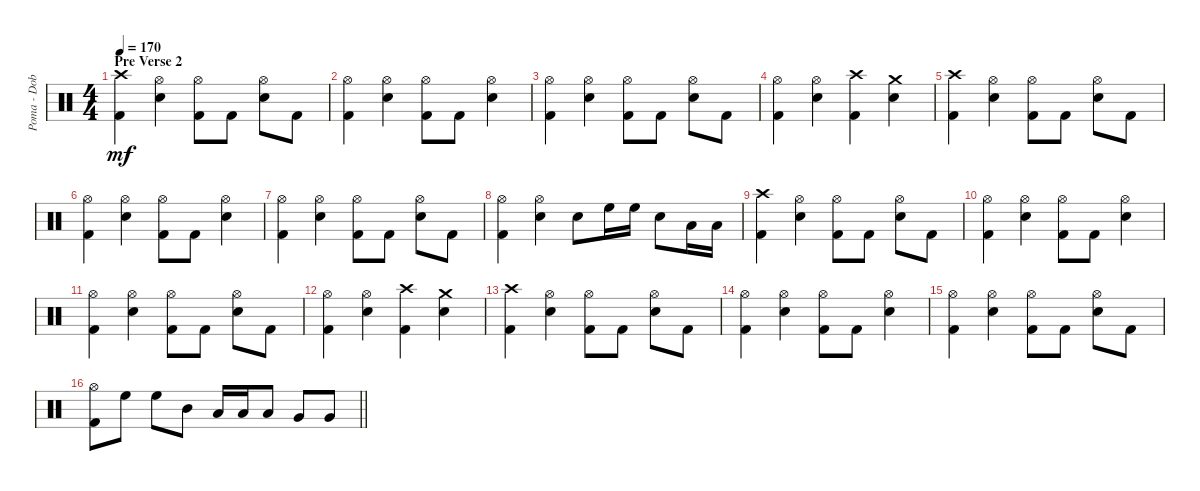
\track ("Poma - Dob" "Poma - Dob") {instrument percussion}
\staff {score}
\articulation defaults
\ts (4 4)
\section ("" "Pre Verse 2")
\tempo 170
\clef neutral
\ks c
("Crash high (hit)" "Kick (hit) 2").4{dy mf} ("Hi-Hat (open)" "Electric Snare (hit)").4 ("Hi-Hat (open)" "Kick (hit) 2").8 "Kick (hit) 2".8 ("Hi-Hat (open)" "Electric Snare (hit)").8 "Kick (hit) 2".8 |
("Hi-Hat (open)" "Kick (hit) 2").4 ("Hi-Hat (open)" "Electric Snare (hit)").4 ("Hi-Hat (open)" "Kick (hit) 2").8 "Kick (hit) 2".8 ("Hi-Hat (open)" "Electric Snare (hit)").4 |
("Hi-Hat (open)" "Kick (hit) 2").4 ("Hi-Hat (open)" "Electric Snare (hit)").4 ("Hi-Hat (open)" "Kick (hit) 2").8 "Kick (hit) 2".8 ("Hi-Hat (open)" "Electric Snare (hit)").8 "Kick (hit) 2".8 |
("Hi-Hat (open)" "Kick (hit) 2").4 ("Hi-Hat (open)" "Electric Snare (hit)").4 ("Crash high (hit)" "Kick (hit) 2").4 ("Crash medium (hit)" "Electric Snare (hit)").4 |
("Crash high (hit)" "Kick (hit) 2").4 ("Hi-Hat (open)" "Electric Snare (hit)").4 ("Hi-Hat (open)" "Kick (hit) 2").8 "Kick (hit) 2".8 ("Hi-Hat (open)" "Electric Snare (hit)").8 "Kick (hit) 2".8 |
("Hi-Hat (open)" "Kick (hit) 2").4 ("Hi-Hat (open)" "Electric Snare (hit)").4 ("Hi-Hat (open)" "Kick (hit) 2").8 "Kick (hit) 2".8 ("Hi-Hat (open)" "Electric Snare (hit)").4 |
("Hi-Hat (open)" "Kick (hit) 2").4 ("Hi-Hat (open)" "Electric Snare (hit)").4 ("Hi-Hat (open)" "Kick (hit) 2").8 "Kick (hit) 2".8 ("Hi-Hat (open)" "Electric Snare (hit)").8 "Kick (hit) 2".8 |
("Hi-Hat (open)" "Kick (hit) 2").4 ("Hi-Hat (open)" "Electric Snare (hit)").4 "Electric Snare (hit)".8 "High Floor Tom (hit)".16 "High Floor Tom (hit)".16 "Electric Snare (hit)".8 "Low Tom (hit)".16 "Low Tom (hit)".16 |
("Crash high (hit)" "Kick (hit) 2").4 ("Hi-Hat (open)" "Electric Snare (hit)").4 ("Hi-Hat (open)" "Kick (hit) 2").8 "Kick (hit) 2".8 ("Hi-Hat (open)" "Electric Snare (hit)").8 "Kick (hit) 2".8 |
("Hi-Hat (open)" "Kick (hit) 2").4 ("Hi-Hat (open)" "Electric Snare (hit)").4 ("Hi-Hat (open)" "Kick (hit) 2").8 "Kick (hit) 2".8 ("Hi-Hat (open)" "Electric Snare (hit)").4 |
("Hi-Hat (open)" "Kick (hit) 2").4 ("Hi-Hat (open)" "Electric Snare (hit)").4 ("Hi-Hat (open)" "Kick (hit) 2").8 "Kick (hit) 2".8 ("Hi-Hat (open)" "Electric Snare (hit)").8 "Kick (hit) 2".8 |
("Hi-Hat (open)" "Kick (hit) 2").4 ("Hi-Hat (open)" "Electric Snare (hit)").4 ("Crash high (hit)" "Kick (hit) 2").4 ("Crash medium (hit)" "Electric Snare (hit)").4 |
("Crash high (hit)" "Kick (hit) 2").4 ("Hi-Hat (open)" "Electric Snare (hit)").4 ("Hi-Hat (open)" "Kick (hit) 2").8 "Kick (hit) 2".8 ("Hi-Hat (open)" "Electric Snare (hit)").8 "Kick (hit) 2".8 |
("Hi-Hat (open)" "Kick (hit) 2").4 ("Hi-Hat (open)" "Electric Snare (hit)").4 ("Hi-Hat (open)" "Kick (hit) 2").8 "Kick (hit) 2".8 ("Hi-Hat (open)" "Electric Snare (hit)").4 |
("Hi-Hat (open)" "Kick (hit) 2").4 ("Hi-Hat (open)" "Electric Snare (hit)").4 ("Hi-Hat (open)" "Kick (hit) 2").8 "Kick (hit) 2".8 ("Hi-Hat (open)" "Electric Snare (hit)").8 "Kick (hit) 2".8 |
\barLineRight lightlight
("Hi-Hat (open)" "Kick (hit) 2").8 "High Floor Tom (hit)".8 "High Floor Tom (hit)".8 "Mid Tom (hit)".8 "Low Tom (hit)".16 "Low Tom (hit)".16 "Low Tom (hit)".8 "Very Low Tom (hit)".8 "Very Low Tom (hit)".8
